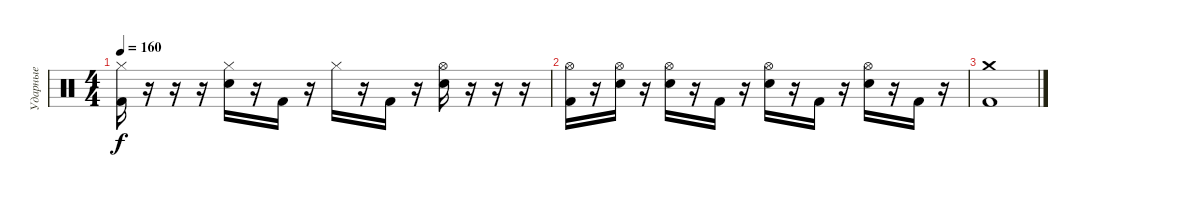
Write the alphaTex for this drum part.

\track ("Ударные" "Ударные") {instrument percussion}
\staff {score}
\articulation defaults
\ts (4 4)
\tempo 160
\clef neutral
\ks c
("Hi-Hat (closed)" "Kick (hit) 2").16{dy f} r.16 r.16 r.16 ("Hi-Hat (closed)" "Electric Snare (hit)").16 r.16 "Kick (hit) 2".16 r.16 "Hi-Hat (closed)".16 r.16 "Kick (hit) 2".16 r.16 ("Hi-Hat (open)" "Electric Snare (hit)").16 r.16 r.16 r.16 |
("Hi-Hat (open)" "Kick (hit) 2").16 r.16 ("Hi-Hat (open)" "Electric Snare (hit)").16 r.16 ("Hi-Hat (open)" "Electric Snare (hit)").16 r.16 "Kick (hit) 2".16 r.16 ("Hi-Hat (open)" "Electric Snare (hit)").16 r.16 "Kick (hit) 2".16 r.16 ("Hi-Hat (open)" "Electric Snare (hit)").16 r.16 "Kick (hit) 2".16 r.16 |
("Crash medium (hit)" "Kick (hit) 2").1
